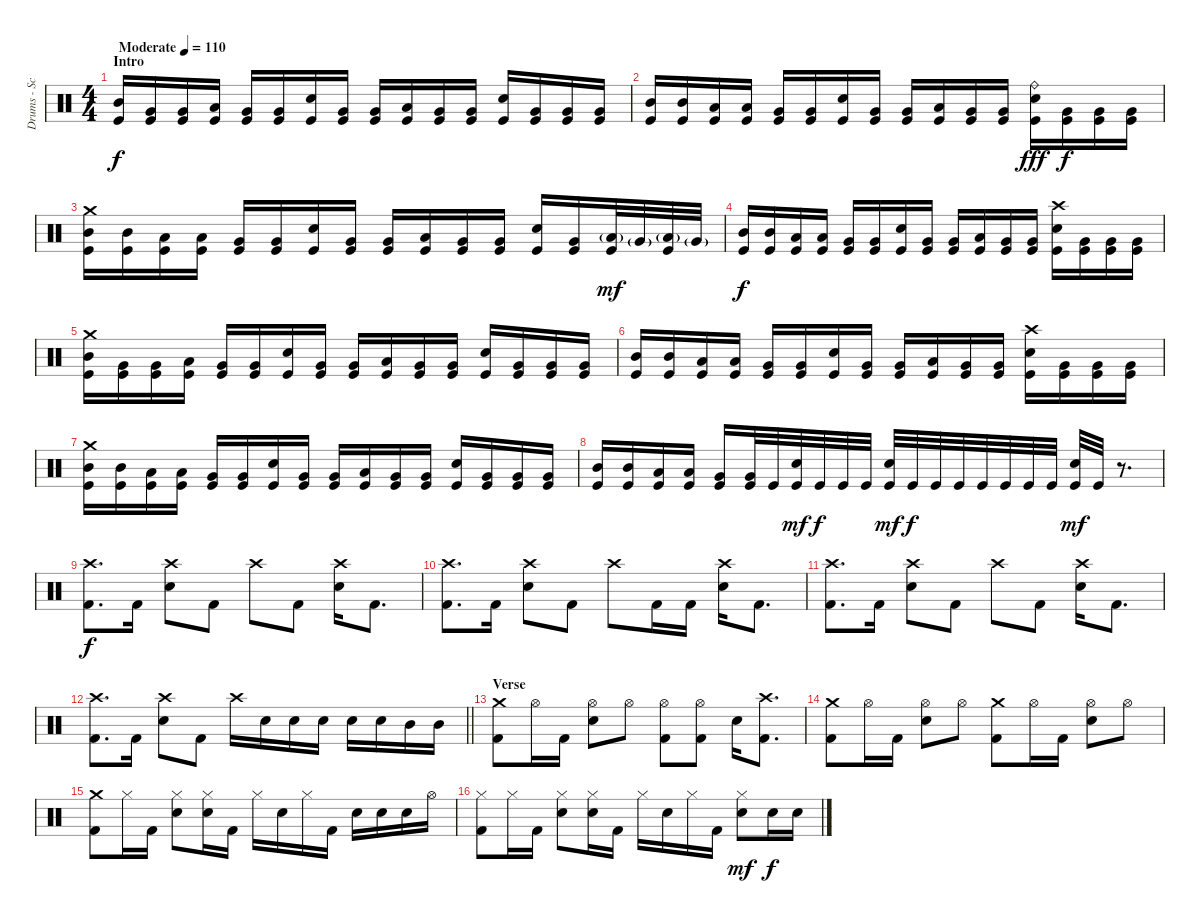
\track ("Drums - Scott" "Drums - Sc") {instrument percussion}
\staff {score}
\articulation defaults
\ts (4 4)
\section ("" "Intro")
\tempo (110 "Moderate")
\clef neutral
\ks c
("Mid Tom (hit)" "Kick (hit)").16{dy f} ("Very Low Tom (hit)" "Kick (hit)").16 ("Very Low Tom (hit)" "Kick (hit)").16 ("Low Tom (hit)" "Kick (hit)").16 ("Very Low Tom (hit)" "Kick (hit)").16 ("Very Low Tom (hit)" "Kick (hit)").16 ("Electric Snare (hit)" "Kick (hit)").16 ("Very Low Tom (hit)" "Kick (hit)").16 ("Very Low Tom (hit)" "Kick (hit)").16 ("Low Tom (hit)" "Kick (hit)").16 ("Very Low Tom (hit)" "Kick (hit)").16 ("Very Low Tom (hit)" "Kick (hit)").16 ("Electric Snare (hit)" "Kick (hit)").16 ("Very Low Tom (hit)" "Kick (hit)").16 ("Very Low Tom (hit)" "Kick (hit)").16 ("Very Low Tom (hit)" "Kick (hit)").16 |
("Mid Tom (hit)" "Kick (hit)").16 ("Mid Tom (hit)" "Kick (hit)").16 ("Low Tom (hit)" "Kick (hit)").16 ("Low Tom (hit)" "Kick (hit)").16 ("Very Low Tom (hit)" "Kick (hit)").16 ("Very Low Tom (hit)" "Kick (hit)").16 ("Electric Snare (hit)" "Kick (hit)").16 ("Very Low Tom (hit)" "Kick (hit)").16 ("Very Low Tom (hit)" "Kick (hit)").16 ("Low Tom (hit)" "Kick (hit)").16 ("Very Low Tom (hit)" "Kick (hit)").16 ("Very Low Tom (hit)" "Kick (hit)").16 ("Ride (bell)" "Electric Snare (hit)" "Kick (hit)").16{dy fff} ("Very Low Tom (hit)" "Kick (hit)").16{dy f} ("Very Low Tom (hit)" "Kick (hit)").16 ("Very Low Tom (hit)" "Kick (hit)").16 |
("Crash medium (hit)" "Mid Tom (hit)" "Kick (hit)").16 ("Mid Tom (hit)" "Kick (hit)").16 ("Low Tom (hit)" "Kick (hit)").16 ("Low Tom (hit)" "Kick (hit)").16 ("Very Low Tom (hit)" "Kick (hit)").16 ("Very Low Tom (hit)" "Kick (hit)").16 ("Electric Snare (hit)" "Kick (hit)").16 ("Very Low Tom (hit)" "Kick (hit)").16 ("Very Low Tom (hit)" "Kick (hit)").16 ("Low Tom (hit)" "Kick (hit)").16 ("Very Low Tom (hit)" "Kick (hit)").16 ("Very Low Tom (hit)" "Kick (hit)").16 ("Electric Snare (hit)" "Kick (hit)").16 ("Very Low Tom (hit)" "Kick (hit)").16 ("Low Tom (hit)"{g} "Kick (hit)").32{dy mf} "Very Low Tom (hit)"{g}.32 ("Low Tom (hit)"{g} "Kick (hit)").32 "Very Low Tom (hit)"{g}.32 |
("Mid Tom (hit)" "Kick (hit)").16{dy f} ("Mid Tom (hit)" "Kick (hit)").16 ("Low Tom (hit)" "Kick (hit)").16 ("Low Tom (hit)" "Kick (hit)").16 ("Very Low Tom (hit)" "Kick (hit)").16 ("Very Low Tom (hit)" "Kick (hit)").16 ("Electric Snare (hit)" "Kick (hit)").16 ("Very Low Tom (hit)" "Kick (hit)").16 ("Very Low Tom (hit)" "Kick (hit)").16 ("Low Tom (hit)" "Kick (hit)").16 ("Very Low Tom (hit)" "Kick (hit)").16 ("Very Low Tom (hit)" "Kick (hit)").16 ("Crash high (hit)" "Electric Snare (hit)" "Kick (hit)").16 ("Very Low Tom (hit)" "Kick (hit)").16 ("Very Low Tom (hit)" "Kick (hit)").16 ("Very Low Tom (hit)" "Kick (hit)").16 |
("Crash medium (hit)" "Mid Tom (hit)" "Kick (hit)").16 ("Very Low Tom (hit)" "Kick (hit)").16 ("Very Low Tom (hit)" "Kick (hit)").16 ("Low Tom (hit)" "Kick (hit)").16 ("Very Low Tom (hit)" "Kick (hit)").16 ("Very Low Tom (hit)" "Kick (hit)").16 ("Electric Snare (hit)" "Kick (hit)").16 ("Very Low Tom (hit)" "Kick (hit)").16 ("Very Low Tom (hit)" "Kick (hit)").16 ("Low Tom (hit)" "Kick (hit)").16 ("Very Low Tom (hit)" "Kick (hit)").16 ("Very Low Tom (hit)" "Kick (hit)").16 ("Electric Snare (hit)" "Kick (hit)").16 ("Very Low Tom (hit)" "Kick (hit)").16 ("Very Low Tom (hit)" "Kick (hit)").16 ("Very Low Tom (hit)" "Kick (hit)").16 |
("Mid Tom (hit)" "Kick (hit)").16 ("Mid Tom (hit)" "Kick (hit)").16 ("Low Tom (hit)" "Kick (hit)").16 ("Low Tom (hit)" "Kick (hit)").16 ("Very Low Tom (hit)" "Kick (hit)").16 ("Very Low Tom (hit)" "Kick (hit)").16 ("Electric Snare (hit)" "Kick (hit)").16 ("Very Low Tom (hit)" "Kick (hit)").16 ("Very Low Tom (hit)" "Kick (hit)").16 ("Low Tom (hit)" "Kick (hit)").16 ("Very Low Tom (hit)" "Kick (hit)").16 ("Very Low Tom (hit)" "Kick (hit)").16 ("Crash high (hit)" "Electric Snare (hit)" "Kick (hit)").16 ("Very Low Tom (hit)" "Kick (hit)").16 ("Very Low Tom (hit)" "Kick (hit)").16 ("Very Low Tom (hit)" "Kick (hit)").16 |
("Crash medium (hit)" "Mid Tom (hit)" "Kick (hit)").16 ("Mid Tom (hit)" "Kick (hit)").16 ("Low Tom (hit)" "Kick (hit)").16 ("Low Tom (hit)" "Kick (hit)").16 ("Very Low Tom (hit)" "Kick (hit)").16 ("Very Low Tom (hit)" "Kick (hit)").16 ("Electric Snare (hit)" "Kick (hit)").16 ("Very Low Tom (hit)" "Kick (hit)").16 ("Very Low Tom (hit)" "Kick (hit)").16 ("Low Tom (hit)" "Kick (hit)").16 ("Very Low Tom (hit)" "Kick (hit)").16 ("Very Low Tom (hit)" "Kick (hit)").16 ("Electric Snare (hit)" "Kick (hit)").16 ("Very Low Tom (hit)" "Kick (hit)").16 ("Very Low Tom (hit)" "Kick (hit)").16 ("Very Low Tom (hit)" "Kick (hit)").16 |
("Mid Tom (hit)" "Kick (hit)").16 ("Mid Tom (hit)" "Kick (hit)").16 ("Low Tom (hit)" "Kick (hit)").16 ("Low Tom (hit)" "Kick (hit)").16 ("Very Low Tom (hit)" "Kick (hit)").16 ("Very Low Tom (hit)" "Kick (hit)").32 "Kick (hit)".32 ("Electric Snare (hit)" "Kick (hit)").32{dy mf} "Kick (hit)".32{dy f} "Kick (hit)".32 "Kick (hit)".32 ("Electric Snare (hit)" "Kick (hit)").32{dy mf} "Kick (hit)".32{dy f} "Kick (hit)".32 "Kick (hit)".32 "Kick (hit)".32 "Kick (hit)".32 "Kick (hit)".32 "Kick (hit)".32 ("Electric Snare (hit)" "Kick (hit)").32{dy mf} "Kick (hit)".32 r.8{d} |
("Crash high (hit)" "Kick (hit) 2").8{d dy f} "Kick (hit) 2".16 ("Crash high (hit)" "Electric Snare (hit)").8 "Kick (hit) 2".8 "Crash high (hit)".8 "Kick (hit) 2".8 ("Crash high (hit)" "Electric Snare (hit)").16 "Kick (hit) 2".8{d} |
("Crash high (hit)" "Kick (hit) 2").8{d} "Kick (hit) 2".16 ("Crash high (hit)" "Electric Snare (hit)").8 "Kick (hit) 2".8 "Crash high (hit)".8 "Kick (hit) 2".16 "Kick (hit) 2".16 ("Crash high (hit)" "Electric Snare (hit)").16 "Kick (hit) 2".8{d} |
("Crash high (hit)" "Kick (hit) 2").8{d} "Kick (hit) 2".16 ("Crash high (hit)" "Electric Snare (hit)").8 "Kick (hit) 2".8 "Crash high (hit)".8 "Kick (hit) 2".8 ("Crash high (hit)" "Electric Snare (hit)").16 "Kick (hit) 2".8{d} |
\barLineRight lightlight
("Crash high (hit)" "Kick (hit) 2").8{d} "Kick (hit) 2".16 ("Crash high (hit)" "Electric Snare (hit)").8 "Kick (hit) 2".8 "Crash high (hit)".16 "Electric Snare (hit)".16 "Electric Snare (hit)".16 "Electric Snare (hit)".16 "Electric Snare (hit)".16 "Electric Snare (hit)".16 "Mid Tom (hit)".16 "Mid Tom (hit)".16 |
\section ("" "Verse")
("Crash medium (hit)" "Kick (hit) 2").8 "Hi-Hat (open)".16 "Kick (hit) 2".16 ("Hi-Hat (open)" "Electric Snare (hit)").8 "Hi-Hat (open)".8 ("Hi-Hat (open)" "Kick (hit) 2").8 ("Hi-Hat (open)" "Kick (hit) 2").8 "Electric Snare (hit)".16 ("Crash high (hit)" "Kick (hit) 2").8{d} |
("Crash medium (hit)" "Kick (hit) 2").8 "Hi-Hat (open)".16 "Kick (hit) 2".16 ("Hi-Hat (open)" "Electric Snare (hit)").8 "Hi-Hat (open)".8 ("Crash medium (hit)" "Kick (hit) 2").8 "Hi-Hat (open)".16 "Kick (hit) 2".16 ("Hi-Hat (open)" "Electric Snare (hit)").8 "Hi-Hat (open)".8 |
("Crash medium (hit)" "Kick (hit) 2").8 "Hi-Hat (closed)".16 "Kick (hit) 2".16 ("Hi-Hat (closed)" "Electric Snare (hit)").8 ("Hi-Hat (closed)" "Electric Snare (hit)").16 "Kick (hit) 2".16 "Hi-Hat (closed)".16 "Electric Snare (hit)".16 "Hi-Hat (closed)".16 "Kick (hit) 2".16 "Electric Snare (hit)".16 "Electric Snare (hit)".16 "Electric Snare (hit)".16 "Hi-Hat (open)".16 |
("Hi-Hat (closed)" "Kick (hit) 2").8 "Hi-Hat (closed)".16 "Kick (hit) 2".16 ("Hi-Hat (closed)" "Electric Snare (hit)").8 ("Hi-Hat (closed)" "Electric Snare (hit)").16 "Kick (hit) 2".16 "Hi-Hat (closed)".16 "Electric Snare (hit)".16 "Hi-Hat (closed)".16 "Kick (hit) 2".16 ("Hi-Hat (closed)" "Electric Snare (hit)").8{dy mf} "Electric Snare (hit)".16{dy f} "Electric Snare (hit)".16
